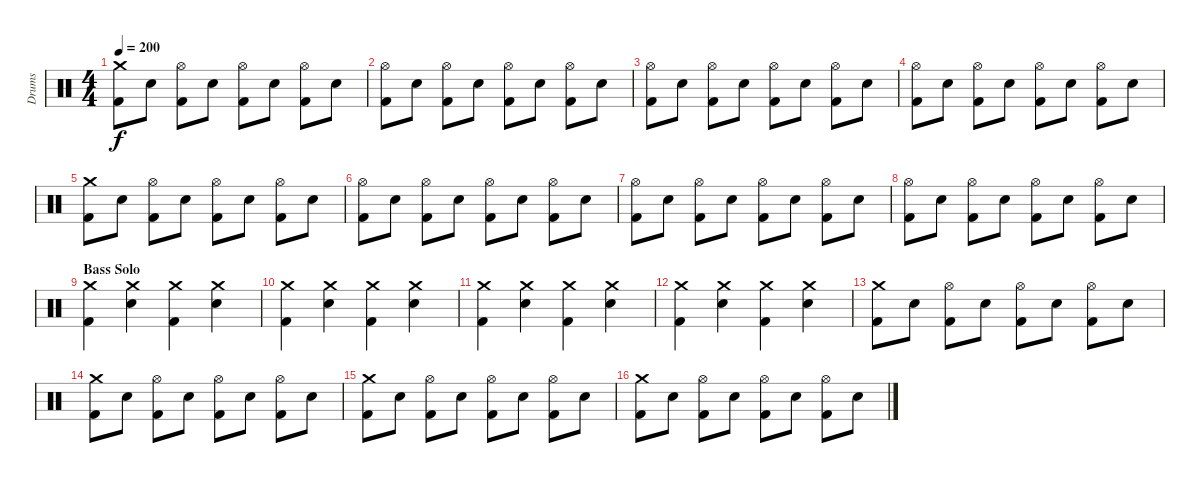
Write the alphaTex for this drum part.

\track ("Drums" "Drums") {instrument percussion}
\staff {score}
\articulation defaults
\ts (4 4)
\tempo 200
\clef neutral
\ks c
("Crash medium (hit)" "Kick (hit) 2").8{dy f} "Snare (hit) 2".8 ("Hi-Hat (open)" "Kick (hit) 2").8 "Snare (hit) 2".8 ("Hi-Hat (open)" "Kick (hit) 2").8 "Snare (hit) 2".8 ("Hi-Hat (open)" "Kick (hit) 2").8 "Snare (hit) 2".8 |
("Hi-Hat (open)" "Kick (hit) 2").8 "Snare (hit) 2".8 ("Hi-Hat (open)" "Kick (hit) 2").8 "Snare (hit) 2".8 ("Hi-Hat (open)" "Kick (hit) 2").8 "Snare (hit) 2".8 ("Hi-Hat (open)" "Kick (hit) 2").8 "Snare (hit) 2".8 |
("Hi-Hat (open)" "Kick (hit) 2").8 "Snare (hit) 2".8 ("Hi-Hat (open)" "Kick (hit) 2").8 "Snare (hit) 2".8 ("Hi-Hat (open)" "Kick (hit) 2").8 "Snare (hit) 2".8 ("Hi-Hat (open)" "Kick (hit) 2").8 "Snare (hit) 2".8 |
("Hi-Hat (open)" "Kick (hit) 2").8 "Snare (hit) 2".8 ("Hi-Hat (open)" "Kick (hit) 2").8 "Snare (hit) 2".8 ("Hi-Hat (open)" "Kick (hit) 2").8 "Snare (hit) 2".8 ("Hi-Hat (open)" "Kick (hit) 2").8 "Snare (hit) 2".8 |
("Crash medium (hit)" "Kick (hit) 2").8 "Snare (hit) 2".8 ("Hi-Hat (open)" "Kick (hit) 2").8 "Snare (hit) 2".8 ("Hi-Hat (open)" "Kick (hit) 2").8 "Snare (hit) 2".8 ("Hi-Hat (open)" "Kick (hit) 2").8 "Snare (hit) 2".8 |
("Hi-Hat (open)" "Kick (hit) 2").8 "Snare (hit) 2".8 ("Hi-Hat (open)" "Kick (hit) 2").8 "Snare (hit) 2".8 ("Hi-Hat (open)" "Kick (hit) 2").8 "Snare (hit) 2".8 ("Hi-Hat (open)" "Kick (hit) 2").8 "Snare (hit) 2".8 |
("Hi-Hat (open)" "Kick (hit) 2").8 "Snare (hit) 2".8 ("Hi-Hat (open)" "Kick (hit) 2").8 "Snare (hit) 2".8 ("Hi-Hat (open)" "Kick (hit) 2").8 "Snare (hit) 2".8 ("Hi-Hat (open)" "Kick (hit) 2").8 "Snare (hit) 2".8 |
("Hi-Hat (open)" "Kick (hit) 2").8 "Snare (hit) 2".8 ("Hi-Hat (open)" "Kick (hit) 2").8 "Snare (hit) 2".8 ("Hi-Hat (open)" "Kick (hit) 2").8 "Snare (hit) 2".8 ("Hi-Hat (open)" "Kick (hit) 2").8 "Snare (hit) 2".8 |
\section ("" "Bass Solo")
("Crash medium (hit)" "Kick (hit) 2").4 ("Crash medium (hit)" "Snare (hit) 2").4 ("Crash medium (hit)" "Kick (hit) 2").4 ("Crash medium (hit)" "Snare (hit) 2").4 |
("Crash medium (hit)" "Kick (hit) 2").4 ("Crash medium (hit)" "Snare (hit) 2").4 ("Crash medium (hit)" "Kick (hit) 2").4 ("Crash medium (hit)" "Snare (hit) 2").4 |
("Crash medium (hit)" "Kick (hit) 2").4 ("Crash medium (hit)" "Snare (hit) 2").4 ("Crash medium (hit)" "Kick (hit) 2").4 ("Crash medium (hit)" "Snare (hit) 2").4 |
("Crash medium (hit)" "Kick (hit) 2").4 ("Crash medium (hit)" "Snare (hit) 2").4 ("Crash medium (hit)" "Kick (hit) 2").4 ("Crash medium (hit)" "Snare (hit) 2").4 |
("Crash medium (hit)" "Kick (hit) 2").8 "Snare (hit) 2".8 ("Hi-Hat (open)" "Kick (hit) 2").8 "Snare (hit) 2".8 ("Hi-Hat (open)" "Kick (hit) 2").8 "Snare (hit) 2".8 ("Hi-Hat (open)" "Kick (hit) 2").8 "Snare (hit) 2".8 |
("Crash medium (hit)" "Kick (hit) 2").8 "Snare (hit) 2".8 ("Hi-Hat (open)" "Kick (hit) 2").8 "Snare (hit) 2".8 ("Hi-Hat (open)" "Kick (hit) 2").8 "Snare (hit) 2".8 ("Hi-Hat (open)" "Kick (hit) 2").8 "Snare (hit) 2".8 |
("Crash medium (hit)" "Kick (hit) 2").8 "Snare (hit) 2".8 ("Hi-Hat (open)" "Kick (hit) 2").8 "Snare (hit) 2".8 ("Hi-Hat (open)" "Kick (hit) 2").8 "Snare (hit) 2".8 ("Hi-Hat (open)" "Kick (hit) 2").8 "Snare (hit) 2".8 |
("Crash medium (hit)" "Kick (hit) 2").8 "Snare (hit) 2".8 ("Hi-Hat (open)" "Kick (hit) 2").8 "Snare (hit) 2".8 ("Hi-Hat (open)" "Kick (hit) 2").8 "Snare (hit) 2".8 ("Hi-Hat (open)" "Kick (hit) 2").8 "Snare (hit) 2".8
